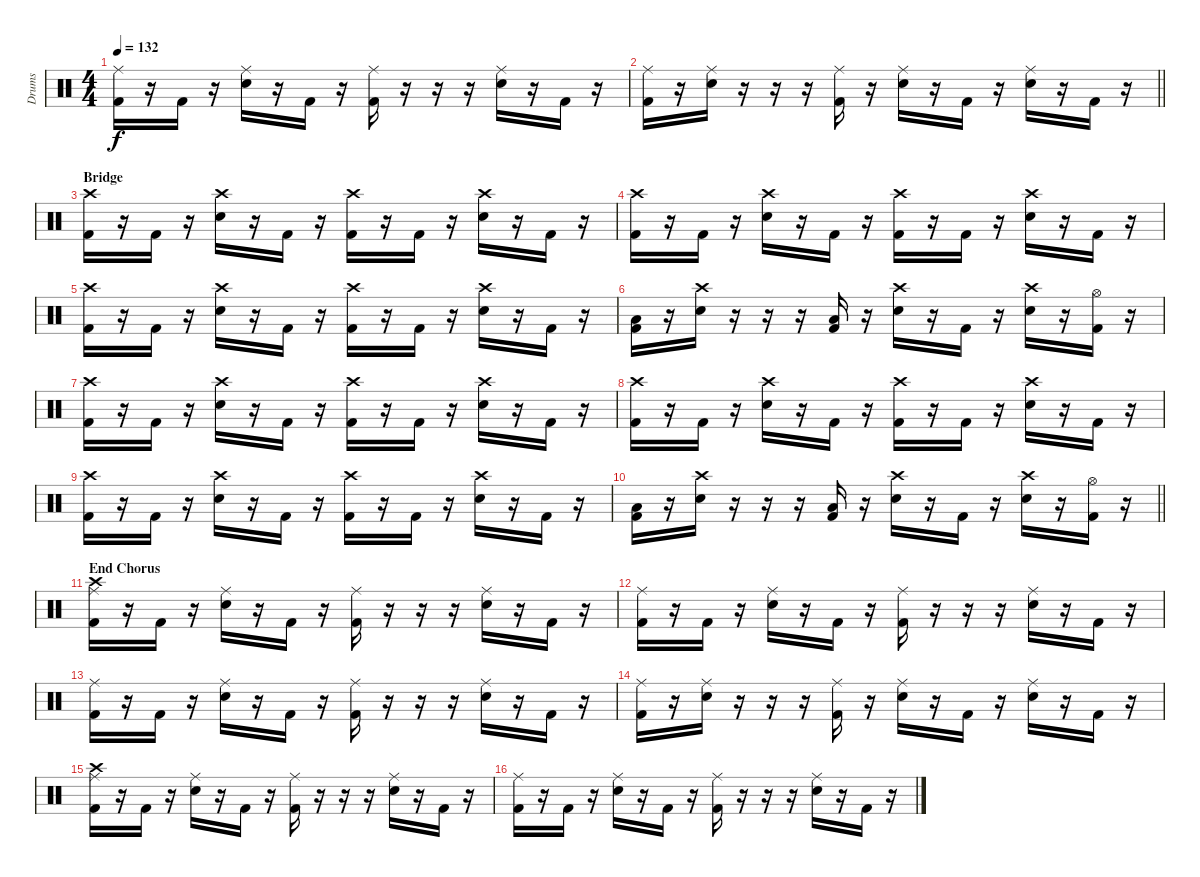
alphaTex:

\track ("Drums" "Drums") {instrument percussion}
\staff {score}
\articulation defaults
\ts (4 4)
\tempo 132
\clef neutral
\ks c
("Ride (middle)" "Kick (hit) 2").16{dy f} r.16 "Kick (hit) 2".16 r.16 ("Ride (middle)" "Snare (hit) 2").16 r.16 "Kick (hit) 2".16 r.16 ("Ride (middle)" "Kick (hit) 2").16 r.16 r.16 r.16 ("Ride (middle)" "Snare (hit) 2").16 r.16 "Kick (hit) 2".16 r.16 |
\barLineRight lightlight
("Ride (middle)" "Kick (hit) 2").16 r.16 ("Ride (middle)" "Snare (hit) 2").16 r.16 r.16 r.16 ("Ride (middle)" "Kick (hit) 2").16 r.16 ("Ride (middle)" "Snare (hit) 2").16 r.16 "Kick (hit) 2".16 r.16 ("Ride (middle)" "Snare (hit) 2").16 r.16 "Kick (hit) 2".16 r.16 |
\section ("" "Bridge")
("Crash high (hit)" "Kick (hit) 2").16 r.16 "Kick (hit) 2".16 r.16 ("Crash high (hit)" "Snare (hit) 2").16 r.16 "Kick (hit) 2".16 r.16 ("Crash high (hit)" "Kick (hit) 2").16 r.16 "Kick (hit) 2".16 r.16 ("Crash high (hit)" "Snare (hit) 2").16 r.16 "Kick (hit) 2".16 r.16 |
("Crash high (hit)" "Kick (hit) 2").16 r.16 "Kick (hit) 2".16 r.16 ("Crash high (hit)" "Snare (hit) 2").16 r.16 "Kick (hit) 2".16 r.16 ("Crash high (hit)" "Kick (hit) 2").16 r.16 "Kick (hit) 2".16 r.16 ("Crash high (hit)" "Snare (hit) 2").16 r.16 "Kick (hit) 2".16 r.16 |
("Crash high (hit)" "Kick (hit) 2").16 r.16 "Kick (hit) 2".16 r.16 ("Crash high (hit)" "Snare (hit) 2").16 r.16 "Kick (hit) 2".16 r.16 ("Crash high (hit)" "Kick (hit) 2").16 r.16 "Kick (hit) 2".16 r.16 ("Crash high (hit)" "Snare (hit) 2").16 r.16 "Kick (hit) 2".16 r.16 |
("Low Tom (hit)" "Kick (hit) 2").16 r.16 ("Crash high (hit)" "Snare (hit) 2").16 r.16 r.16 r.16 ("Low Tom (hit)" "Kick (hit) 2").16 r.16 ("Crash high (hit)" "Snare (hit) 2").16 r.16 "Kick (hit) 2".16 r.16 ("Crash high (hit)" "Snare (hit) 2").16 r.16 ("Hi-Hat (open)" "Kick (hit) 2").16 r.16 |
("Crash high (hit)" "Kick (hit) 2").16 r.16 "Kick (hit) 2".16 r.16 ("Crash high (hit)" "Snare (hit) 2").16 r.16 "Kick (hit) 2".16 r.16 ("Crash high (hit)" "Kick (hit) 2").16 r.16 "Kick (hit) 2".16 r.16 ("Crash high (hit)" "Snare (hit) 2").16 r.16 "Kick (hit) 2".16 r.16 |
("Crash high (hit)" "Kick (hit) 2").16 r.16 "Kick (hit) 2".16 r.16 ("Crash high (hit)" "Snare (hit) 2").16 r.16 "Kick (hit) 2".16 r.16 ("Crash high (hit)" "Kick (hit) 2").16 r.16 "Kick (hit) 2".16 r.16 ("Crash high (hit)" "Snare (hit) 2").16 r.16 "Kick (hit) 2".16 r.16 |
("Crash high (hit)" "Kick (hit) 2").16 r.16 "Kick (hit) 2".16 r.16 ("Crash high (hit)" "Snare (hit) 2").16 r.16 "Kick (hit) 2".16 r.16 ("Crash high (hit)" "Kick (hit) 2").16 r.16 "Kick (hit) 2".16 r.16 ("Crash high (hit)" "Snare (hit) 2").16 r.16 "Kick (hit) 2".16 r.16 |
\barLineRight lightlight
("Low Tom (hit)" "Kick (hit) 2").16 r.16 ("Crash high (hit)" "Snare (hit) 2").16 r.16 r.16 r.16 ("Low Tom (hit)" "Kick (hit) 2").16 r.16 ("Crash high (hit)" "Snare (hit) 2").16 r.16 "Kick (hit) 2".16 r.16 ("Crash high (hit)" "Snare (hit) 2").16 r.16 ("Hi-Hat (open)" "Kick (hit) 2").16 r.16 |
\section ("" "End Chorus")
("Crash high (hit)" "Ride (middle)" "Kick (hit) 2").16 r.16 "Kick (hit) 2".16 r.16 ("Ride (middle)" "Snare (hit) 2").16 r.16 "Kick (hit) 2".16 r.16 ("Ride (middle)" "Kick (hit) 2").16 r.16 r.16 r.16 ("Ride (middle)" "Snare (hit) 2").16 r.16 "Kick (hit) 2".16 r.16 |
("Ride (middle)" "Kick (hit) 2").16 r.16 "Kick (hit) 2".16 r.16 ("Ride (middle)" "Snare (hit) 2").16 r.16 "Kick (hit) 2".16 r.16 ("Ride (middle)" "Kick (hit) 2").16 r.16 r.16 r.16 ("Ride (middle)" "Snare (hit) 2").16 r.16 "Kick (hit) 2".16 r.16 |
("Ride (middle)" "Kick (hit) 2").16 r.16 "Kick (hit) 2".16 r.16 ("Ride (middle)" "Snare (hit) 2").16 r.16 "Kick (hit) 2".16 r.16 ("Ride (middle)" "Kick (hit) 2").16 r.16 r.16 r.16 ("Ride (middle)" "Snare (hit) 2").16 r.16 "Kick (hit) 2".16 r.16 |
("Ride (middle)" "Kick (hit) 2").16 r.16 ("Ride (middle)" "Snare (hit) 2").16 r.16 r.16 r.16 ("Ride (middle)" "Kick (hit) 2").16 r.16 ("Ride (middle)" "Snare (hit) 2").16 r.16 "Kick (hit) 2".16 r.16 ("Ride (middle)" "Snare (hit) 2").16 r.16 "Kick (hit) 2".16 r.16 |
("Crash high (hit)" "Ride (middle)" "Kick (hit) 2").16 r.16 "Kick (hit) 2".16 r.16 ("Ride (middle)" "Snare (hit) 2").16 r.16 "Kick (hit) 2".16 r.16 ("Ride (middle)" "Kick (hit) 2").16 r.16 r.16 r.16 ("Ride (middle)" "Snare (hit) 2").16 r.16 "Kick (hit) 2".16 r.16 |
("Ride (middle)" "Kick (hit) 2").16 r.16 "Kick (hit) 2".16 r.16 ("Ride (middle)" "Snare (hit) 2").16 r.16 "Kick (hit) 2".16 r.16 ("Ride (middle)" "Kick (hit) 2").16 r.16 r.16 r.16 ("Ride (middle)" "Snare (hit) 2").16 r.16 "Kick (hit) 2".16 r.16
